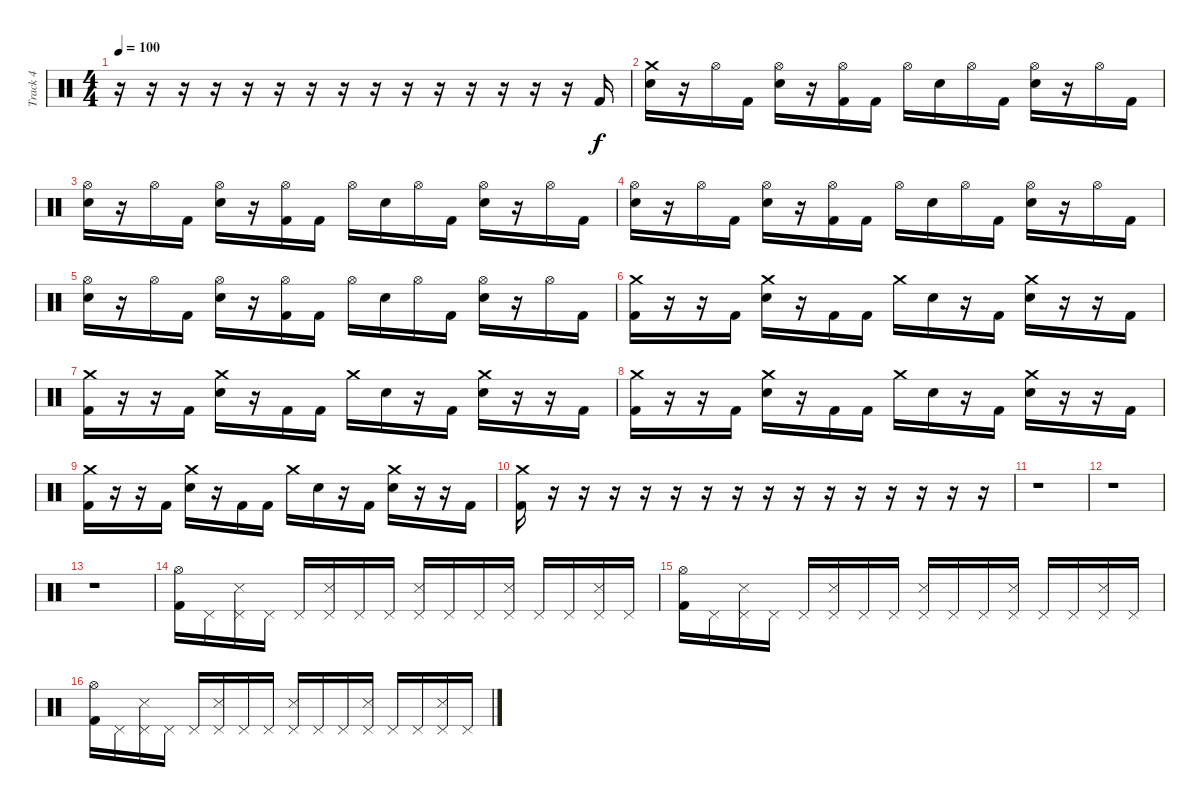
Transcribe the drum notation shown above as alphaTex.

\track ("Track 4" "Track 4") {instrument percussion}
\staff {score}
\articulation defaults
\ts (4 4)
\tempo 100
\clef neutral
\ks c
r.16{dy f} r.16 r.16 r.16 r.16 r.16 r.16 r.16 r.16 r.16 r.16 r.16 r.16 r.16 r.16 "Kick (hit) 2".16 |
("Crash medium (hit)" "Electric Snare (hit)").16 r.16 "Hi-Hat (open)".16 "Kick (hit) 2".16 ("Electric Snare (hit)" "Hi-Hat (open)").16 r.16 ("Hi-Hat (open)" "Kick (hit) 2").16 "Kick (hit) 2".16 "Hi-Hat (open)".16 "Electric Snare (hit)".16 "Hi-Hat (open)".16 "Kick (hit) 2".16 ("Hi-Hat (open)" "Electric Snare (hit)").16 r.16 "Hi-Hat (open)".16 "Kick (hit) 2".16 |
("Hi-Hat (open)" "Electric Snare (hit)").16 r.16 "Hi-Hat (open)".16 "Kick (hit) 2".16 ("Electric Snare (hit)" "Hi-Hat (open)").16 r.16 ("Hi-Hat (open)" "Kick (hit) 2").16 "Kick (hit) 2".16 "Hi-Hat (open)".16 "Electric Snare (hit)".16 "Hi-Hat (open)".16 "Kick (hit) 2".16 ("Hi-Hat (open)" "Electric Snare (hit)").16 r.16 "Hi-Hat (open)".16 "Kick (hit) 2".16 |
("Hi-Hat (open)" "Electric Snare (hit)").16 r.16 "Hi-Hat (open)".16 "Kick (hit) 2".16 ("Electric Snare (hit)" "Hi-Hat (open)").16 r.16 ("Hi-Hat (open)" "Kick (hit) 2").16 "Kick (hit) 2".16 "Hi-Hat (open)".16 "Electric Snare (hit)".16 "Hi-Hat (open)".16 "Kick (hit) 2".16 ("Hi-Hat (open)" "Electric Snare (hit)").16 r.16 "Hi-Hat (open)".16 "Kick (hit) 2".16 |
("Hi-Hat (open)" "Electric Snare (hit)").16 r.16 "Hi-Hat (open)".16 "Kick (hit) 2".16 ("Electric Snare (hit)" "Hi-Hat (open)").16 r.16 ("Hi-Hat (open)" "Kick (hit) 2").16 "Kick (hit) 2".16 "Hi-Hat (open)".16 "Electric Snare (hit)".16 "Hi-Hat (open)".16 "Kick (hit) 2".16 ("Hi-Hat (open)" "Electric Snare (hit)").16 r.16 "Hi-Hat (open)".16 "Kick (hit) 2".16 |
("Crash medium (hit)" "Kick (hit) 2").16 r.16 r.16 "Kick (hit) 2".16 ("Crash medium (hit)" "Electric Snare (hit)").16 r.16 "Kick (hit) 2".16 "Kick (hit) 2".16 "Crash medium (hit)".16 "Electric Snare (hit)".16 r.16 "Kick (hit) 2".16 ("Crash medium (hit)" "Electric Snare (hit)").16 r.16 r.16 "Kick (hit) 2".16 |
("Crash medium (hit)" "Kick (hit) 2").16 r.16 r.16 "Kick (hit) 2".16 ("Crash medium (hit)" "Electric Snare (hit)").16 r.16 "Kick (hit) 2".16 "Kick (hit) 2".16 "Crash medium (hit)".16 "Electric Snare (hit)".16 r.16 "Kick (hit) 2".16 ("Crash medium (hit)" "Electric Snare (hit)").16 r.16 r.16 "Kick (hit) 2".16 |
("Crash medium (hit)" "Kick (hit) 2").16 r.16 r.16 "Kick (hit) 2".16 ("Crash medium (hit)" "Electric Snare (hit)").16 r.16 "Kick (hit) 2".16 "Kick (hit) 2".16 "Crash medium (hit)".16 "Electric Snare (hit)".16 r.16 "Kick (hit) 2".16 ("Crash medium (hit)" "Electric Snare (hit)").16 r.16 r.16 "Kick (hit) 2".16 |
("Crash medium (hit)" "Kick (hit) 2").16 r.16 r.16 "Kick (hit) 2".16 ("Crash medium (hit)" "Electric Snare (hit)").16 r.16 "Kick (hit) 2".16 "Kick (hit) 2".16 "Crash medium (hit)".16 "Electric Snare (hit)".16 r.16 "Kick (hit) 2".16 ("Crash medium (hit)" "Electric Snare (hit)").16 r.16 r.16 "Kick (hit) 2".16 |
("Crash medium (hit)" "Kick (hit) 2").16 r.16 r.16 r.16 r.16 r.16 r.16 r.16 r.16 r.16 r.16 r.16 r.16 r.16 r.16 r.16 |
r.1 |
r.1 |
r.1 |
("Hi-Hat (open)" "Kick (hit) 2").16 "Pedal Hi-Hat (hit)".16 ("Pedal Hi-Hat (hit)" "Metronome (hit)").16 "Pedal Hi-Hat (hit)".16 "Pedal Hi-Hat (hit)".16 ("Pedal Hi-Hat (hit)" "Metronome (hit)").16 "Pedal Hi-Hat (hit)".16 "Pedal Hi-Hat (hit)".16 ("Pedal Hi-Hat (hit)" "Metronome (hit)").16 "Pedal Hi-Hat (hit)".16 "Pedal Hi-Hat (hit)".16 ("Pedal Hi-Hat (hit)" "Metronome (hit)").16 "Pedal Hi-Hat (hit)".16 "Pedal Hi-Hat (hit)".16 ("Pedal Hi-Hat (hit)" "Metronome (hit)").16 "Pedal Hi-Hat (hit)".16 |
("Hi-Hat (open)" "Kick (hit) 2").16 "Pedal Hi-Hat (hit)".16 ("Pedal Hi-Hat (hit)" "Metronome (hit)").16 "Pedal Hi-Hat (hit)".16 "Pedal Hi-Hat (hit)".16 ("Pedal Hi-Hat (hit)" "Metronome (hit)").16 "Pedal Hi-Hat (hit)".16 "Pedal Hi-Hat (hit)".16 ("Pedal Hi-Hat (hit)" "Metronome (hit)").16 "Pedal Hi-Hat (hit)".16 "Pedal Hi-Hat (hit)".16 ("Pedal Hi-Hat (hit)" "Metronome (hit)").16 "Pedal Hi-Hat (hit)".16 "Pedal Hi-Hat (hit)".16 ("Pedal Hi-Hat (hit)" "Metronome (hit)").16 "Pedal Hi-Hat (hit)".16 |
("Hi-Hat (open)" "Kick (hit) 2").16 "Pedal Hi-Hat (hit)".16 ("Pedal Hi-Hat (hit)" "Metronome (hit)").16 "Pedal Hi-Hat (hit)".16 "Pedal Hi-Hat (hit)".16 ("Pedal Hi-Hat (hit)" "Metronome (hit)").16 "Pedal Hi-Hat (hit)".16 "Pedal Hi-Hat (hit)".16 ("Pedal Hi-Hat (hit)" "Metronome (hit)").16 "Pedal Hi-Hat (hit)".16 "Pedal Hi-Hat (hit)".16 ("Pedal Hi-Hat (hit)" "Metronome (hit)").16 "Pedal Hi-Hat (hit)".16 "Pedal Hi-Hat (hit)".16 ("Pedal Hi-Hat (hit)" "Metronome (hit)").16 "Pedal Hi-Hat (hit)".16
